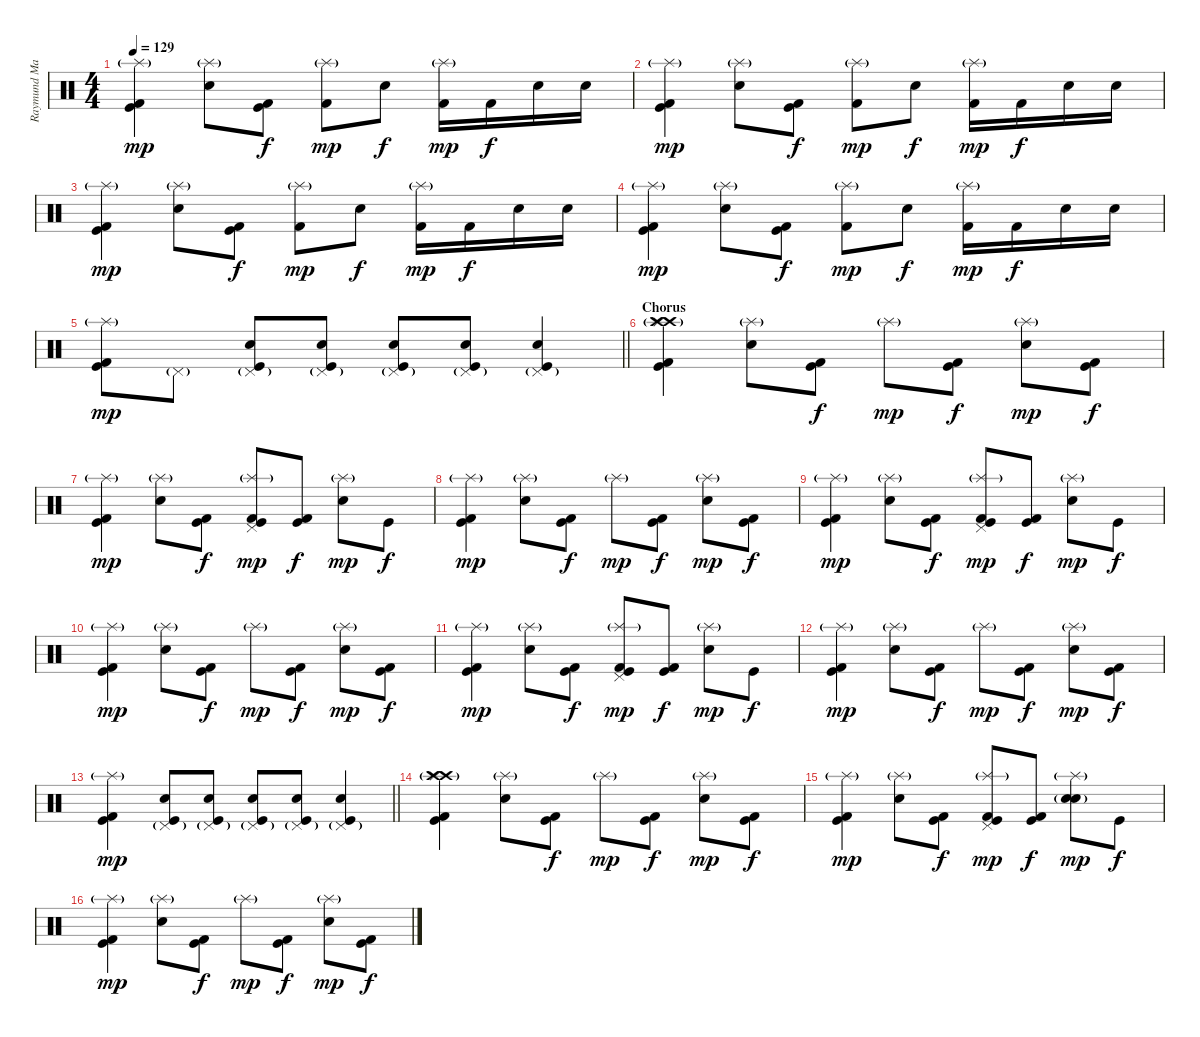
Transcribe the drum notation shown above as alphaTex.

\track ("Raymund Marasigan(Drums)" "Raymund Ma") {instrument percussion}
\staff {score}
\articulation defaults
\ts (4 4)
\tempo 129
\clef neutral
\ks c
("Kick (hit) 2" "Kick (hit)" "Splash (hit)"{g}).4{dy mp} ("Electric Snare (hit)" "Splash (hit)"{g}).8 ("Kick (hit) 2" "Kick (hit)").8{dy f} ("Kick (hit) 2" "Splash (hit)"{g}).8{dy mp} "Electric Snare (hit)".8{dy f} ("Splash (hit)"{g} "Kick (hit) 2").16{dy mp} "Kick (hit) 2".16{dy f} "Electric Snare (hit)".16 "Electric Snare (hit)".16 |
("Kick (hit) 2" "Kick (hit)" "Splash (hit)"{g}).4{dy mp} ("Electric Snare (hit)" "Splash (hit)"{g}).8 ("Kick (hit) 2" "Kick (hit)").8{dy f} ("Kick (hit) 2" "Splash (hit)"{g}).8{dy mp} "Electric Snare (hit)".8{dy f} ("Splash (hit)"{g} "Kick (hit) 2").16{dy mp} "Kick (hit) 2".16{dy f} "Electric Snare (hit)".16 "Electric Snare (hit)".16 |
("Kick (hit) 2" "Kick (hit)" "Splash (hit)"{g}).4{dy mp} ("Electric Snare (hit)" "Splash (hit)"{g}).8 ("Kick (hit) 2" "Kick (hit)").8{dy f} ("Kick (hit) 2" "Splash (hit)"{g}).8{dy mp} "Electric Snare (hit)".8{dy f} ("Splash (hit)"{g} "Kick (hit) 2").16{dy mp} "Kick (hit) 2".16{dy f} "Electric Snare (hit)".16 "Electric Snare (hit)".16 |
("Kick (hit) 2" "Kick (hit)" "Splash (hit)"{g}).4{dy mp} ("Electric Snare (hit)" "Splash (hit)"{g}).8 ("Kick (hit) 2" "Kick (hit)").8{dy f} ("Kick (hit) 2" "Splash (hit)"{g}).8{dy mp} "Electric Snare (hit)".8{dy f} ("Splash (hit)"{g} "Kick (hit) 2").16{dy mp} "Kick (hit) 2".16{dy f} "Electric Snare (hit)".16 "Electric Snare (hit)".16 |
\barLineRight lightlight
("Kick (hit) 2" "Kick (hit)" "Splash (hit)"{g}).8{dy mp} "Pedal Hi-Hat (hit)"{g}.8 ("Electric Snare (hit)" "Kick (hit)" "Pedal Hi-Hat (hit)"{g}).8 ("Electric Snare (hit)" "Kick (hit)" "Pedal Hi-Hat (hit)"{g}).8 ("Electric Snare (hit)" "Kick (hit)" "Pedal Hi-Hat (hit)"{g}).8 ("Electric Snare (hit)" "Kick (hit)" "Pedal Hi-Hat (hit)"{g}).8 ("Electric Snare (hit)" "Kick (hit)" "Pedal Hi-Hat (hit)"{g}).4 |
\section ("" "Chorus")
("Crash high (hit)"{g} "Crash high (hit)"{g} "Kick (hit) 2" "Kick (hit)" "Splash (hit)"{g}).4 ("Electric Snare (hit)" "Splash (hit)"{g}).8 ("Kick (hit) 2" "Kick (hit)").8{dy f} "Splash (hit)"{g}.8{dy mp} ("Kick (hit) 2" "Kick (hit)").8{dy f} ("Electric Snare (hit)" "Splash (hit)"{g}).8{dy mp} ("Kick (hit) 2" "Kick (hit)").8{dy f} |
("Kick (hit) 2" "Kick (hit)" "Splash (hit)"{g}).4{dy mp} ("Electric Snare (hit)" "Splash (hit)"{g}).8 ("Kick (hit) 2" "Kick (hit)").8{dy f} ("Kick (hit) 2" "Kick (hit)" "Splash (hit)"{g} "Pedal Hi-Hat (hit)").8{dy mp} ("Kick (hit) 2" "Kick (hit)").8{dy f} ("Electric Snare (hit)" "Splash (hit)"{g}).8{dy mp} "Kick (hit)".8{dy f} |
("Kick (hit) 2" "Kick (hit)" "Splash (hit)"{g}).4{dy mp} ("Electric Snare (hit)" "Splash (hit)"{g}).8 ("Kick (hit) 2" "Kick (hit)").8{dy f} "Splash (hit)"{g}.8{dy mp} ("Kick (hit) 2" "Kick (hit)").8{dy f} ("Electric Snare (hit)" "Splash (hit)"{g}).8{dy mp} ("Kick (hit) 2" "Kick (hit)").8{dy f} |
("Kick (hit) 2" "Kick (hit)" "Splash (hit)"{g}).4{dy mp} ("Electric Snare (hit)" "Splash (hit)"{g}).8 ("Kick (hit) 2" "Kick (hit)").8{dy f} ("Kick (hit) 2" "Kick (hit)" "Splash (hit)"{g} "Pedal Hi-Hat (hit)").8{dy mp} ("Kick (hit) 2" "Kick (hit)").8{dy f} ("Electric Snare (hit)" "Splash (hit)"{g}).8{dy mp} "Kick (hit)".8{dy f} |
("Kick (hit) 2" "Kick (hit)" "Splash (hit)"{g}).4{dy mp} ("Electric Snare (hit)" "Splash (hit)"{g}).8 ("Kick (hit) 2" "Kick (hit)").8{dy f} "Splash (hit)"{g}.8{dy mp} ("Kick (hit) 2" "Kick (hit)").8{dy f} ("Electric Snare (hit)" "Splash (hit)"{g}).8{dy mp} ("Kick (hit) 2" "Kick (hit)").8{dy f} |
("Kick (hit) 2" "Kick (hit)" "Splash (hit)"{g}).4{dy mp} ("Electric Snare (hit)" "Splash (hit)"{g}).8 ("Kick (hit) 2" "Kick (hit)").8{dy f} ("Kick (hit) 2" "Kick (hit)" "Splash (hit)"{g} "Pedal Hi-Hat (hit)").8{dy mp} ("Kick (hit) 2" "Kick (hit)").8{dy f} ("Electric Snare (hit)" "Splash (hit)"{g}).8{dy mp} "Kick (hit)".8{dy f} |
("Kick (hit) 2" "Kick (hit)" "Splash (hit)"{g}).4{dy mp} ("Electric Snare (hit)" "Splash (hit)"{g}).8 ("Kick (hit) 2" "Kick (hit)").8{dy f} "Splash (hit)"{g}.8{dy mp} ("Kick (hit) 2" "Kick (hit)").8{dy f} ("Electric Snare (hit)" "Splash (hit)"{g}).8{dy mp} ("Kick (hit) 2" "Kick (hit)").8{dy f} |
\barLineRight lightlight
("Kick (hit) 2" "Kick (hit)" "Splash (hit)"{g}).4{dy mp} ("Electric Snare (hit)" "Kick (hit)" "Pedal Hi-Hat (hit)"{g}).8 ("Electric Snare (hit)" "Kick (hit)" "Pedal Hi-Hat (hit)"{g}).8 ("Electric Snare (hit)" "Kick (hit)" "Pedal Hi-Hat (hit)"{g}).8 ("Electric Snare (hit)" "Kick (hit)" "Pedal Hi-Hat (hit)"{g}).8 ("Electric Snare (hit)" "Kick (hit)" "Pedal Hi-Hat (hit)"{g}).4 |
("Crash high (hit)"{g} "Crash high (hit)"{g} "Kick (hit) 2" "Kick (hit)" "Splash (hit)"{g}).4 ("Electric Snare (hit)" "Splash (hit)"{g}).8 ("Kick (hit) 2" "Kick (hit)").8{dy f} "Splash (hit)"{g}.8{dy mp} ("Kick (hit) 2" "Kick (hit)").8{dy f} ("Electric Snare (hit)" "Splash (hit)"{g}).8{dy mp} ("Kick (hit) 2" "Kick (hit)").8{dy f} |
("Kick (hit) 2" "Kick (hit)" "Splash (hit)"{g}).4{dy mp} ("Electric Snare (hit)" "Splash (hit)"{g}).8 ("Kick (hit) 2" "Kick (hit)").8{dy f} ("Kick (hit) 2" "Kick (hit)" "Splash (hit)"{g} "Pedal Hi-Hat (hit)").8{dy mp} ("Kick (hit) 2" "Kick (hit)").8{dy f} ("Electric Snare (hit)" "Splash (hit)"{g} "Snare (hit) 2"{g}).8{dy mp} "Kick (hit)".8{dy f} |
("Kick (hit) 2" "Kick (hit)" "Splash (hit)"{g}).4{dy mp} ("Electric Snare (hit)" "Splash (hit)"{g}).8 ("Kick (hit) 2" "Kick (hit)").8{dy f} "Splash (hit)"{g}.8{dy mp} ("Kick (hit) 2" "Kick (hit)").8{dy f} ("Electric Snare (hit)" "Splash (hit)"{g}).8{dy mp} ("Kick (hit) 2" "Kick (hit)").8{dy f}
